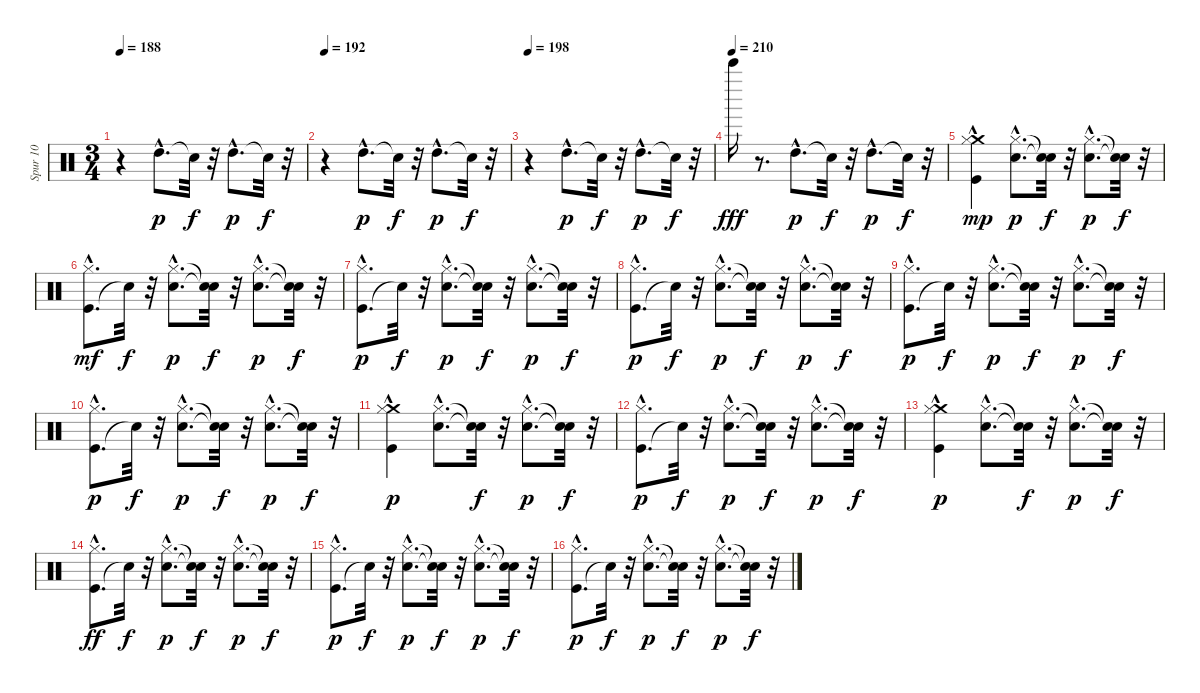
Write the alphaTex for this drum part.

\track ("Spur 10" "Spur 10") {instrument percussion}
\staff {score}
\articulation defaults
\ts (3 4)
\tempo 188
\clef neutral
\ks c
r.4{dy f} "High Tom (hit)"{hac}.8{d dy p} "Snare (hit)"{t}.32{dy f} r.32 "High Tom (hit)"{hac}.8{d dy p} "Snare (hit)"{t}.32{dy f} r.32 |
\tempo 192
r.4 "High Tom (hit)"{hac}.8{d dy p} "Snare (hit)"{t}.32{dy f} r.32 "High Tom (hit)"{hac}.8{d dy p} "Snare (hit)"{t}.32{dy f} r.32 |
\tempo 198
r.4 "High Tom (hit)"{hac}.8{d dy p} "Snare (hit)"{t}.32{dy f} r.32 "High Tom (hit)"{hac}.8{d dy p} "Snare (hit)"{t}.32{dy f} r.32 |
\tempo (210)
"Bell Tree (hit)".16{dy fff} r.8{d} "High Tom (hit)"{hac}.8{d dy p} "Snare (hit)"{t}.32{dy f} r.32 "High Tom (hit)"{hac}.8{d dy p} "Snare (hit)"{t}.32{dy f} r.32 |
("Crash medium (hit)" "Kick (hit)"{hac} "Hi-Hat (closed)").4{dy mp} ("Snare (hit) 2"{hac} "Hi-Hat (closed)"{hac}).8{d dy p} ("Snare (hit)"{t} "Snare (hit)"{t}).32{dy f} r.32 ("Snare (hit) 2"{hac} "Hi-Hat (closed)"{hac}).8{d dy p} ("Snare (hit)"{t} "Snare (hit)"{t}).32{dy f} r.32 |
("Kick (hit)"{hac} "Hi-Hat (closed)").8{d dy mf} "Snare (hit)"{t}.32{dy f} r.32 ("Snare (hit) 2"{hac} "Hi-Hat (closed)"{hac}).8{d dy p} ("Snare (hit)"{t} "Snare (hit)"{t}).32{dy f} r.32 ("Snare (hit) 2"{hac} "Hi-Hat (closed)"{hac}).8{d dy p} ("Snare (hit)"{t} "Snare (hit)"{t}).32{dy f} r.32 |
("Kick (hit)"{hac} "Hi-Hat (closed)").8{d dy p} "Snare (hit)"{t}.32{dy f} r.32 ("Snare (hit) 2"{hac} "Hi-Hat (closed)"{hac}).8{d dy p} ("Snare (hit)"{t} "Snare (hit)"{t}).32{dy f} r.32 ("Snare (hit) 2"{hac} "Hi-Hat (closed)"{hac}).8{d dy p} ("Snare (hit)"{t} "Snare (hit)"{t}).32{dy f} r.32 |
("Kick (hit)"{hac} "Hi-Hat (closed)").8{d dy p} "Snare (hit)"{t}.32{dy f} r.32 ("Snare (hit) 2"{hac} "Hi-Hat (closed)"{hac}).8{d dy p} ("Snare (hit)"{t} "Snare (hit)"{t}).32{dy f} r.32 ("Snare (hit) 2"{hac} "Hi-Hat (closed)"{hac}).8{d dy p} ("Snare (hit)"{t} "Snare (hit)"{t}).32{dy f} r.32 |
("Kick (hit)"{hac} "Hi-Hat (closed)").8{d dy p} "Snare (hit)"{t}.32{dy f} r.32 ("Snare (hit) 2"{hac} "Hi-Hat (closed)"{hac}).8{d dy p} ("Snare (hit)"{t} "Snare (hit)"{t}).32{dy f} r.32 ("Snare (hit) 2"{hac} "Hi-Hat (closed)"{hac}).8{d dy p} ("Snare (hit)"{t} "Snare (hit)"{t}).32{dy f} r.32 |
("Kick (hit)"{hac} "Hi-Hat (closed)").8{d dy p} "Snare (hit)"{t}.32{dy f} r.32 ("Snare (hit) 2"{hac} "Hi-Hat (closed)"{hac}).8{d dy p} ("Snare (hit)"{t} "Snare (hit)"{t}).32{dy f} r.32 ("Snare (hit) 2"{hac} "Hi-Hat (closed)"{hac}).8{d dy p} ("Snare (hit)"{t} "Snare (hit)"{t}).32{dy f} r.32 |
("Crash medium (hit)" "Kick (hit)"{hac} "Hi-Hat (closed)").4{dy p} ("Snare (hit) 2"{hac} "Hi-Hat (closed)"{hac}).8{d} ("Snare (hit)"{t} "Snare (hit)"{t}).32{dy f} r.32 ("Snare (hit) 2"{hac} "Hi-Hat (closed)"{hac}).8{d dy p} ("Snare (hit)"{t} "Snare (hit)"{t}).32{dy f} r.32 |
("Kick (hit)"{hac} "Hi-Hat (closed)").8{d dy p} "Snare (hit)"{t}.32{dy f} r.32 ("Snare (hit) 2"{hac} "Hi-Hat (closed)"{hac}).8{d dy p} ("Snare (hit)"{t} "Snare (hit)"{t}).32{dy f} r.32 ("Snare (hit) 2"{hac} "Hi-Hat (closed)"{hac}).8{d dy p} ("Snare (hit)"{t} "Snare (hit)"{t}).32{dy f} r.32 |
("Crash medium (hit)" "Kick (hit)"{hac} "Hi-Hat (closed)").4{dy p} ("Snare (hit) 2"{hac} "Hi-Hat (closed)"{hac}).8{d} ("Snare (hit)"{t} "Snare (hit)"{t}).32{dy f} r.32 ("Snare (hit) 2"{hac} "Hi-Hat (closed)"{hac}).8{d dy p} ("Snare (hit)"{t} "Snare (hit)"{t}).32{dy f} r.32 |
("Kick (hit)"{hac} "Hi-Hat (closed)").8{d dy ff} "Snare (hit)"{t}.32{dy f} r.32 ("Snare (hit) 2"{hac} "Hi-Hat (closed)"{hac}).8{d dy p} ("Snare (hit)"{t} "Snare (hit)"{t}).32{dy f} r.32 ("Snare (hit) 2"{hac} "Hi-Hat (closed)"{hac}).8{d dy p} ("Snare (hit)"{t} "Snare (hit)"{t}).32{dy f} r.32 |
("Kick (hit)"{hac} "Hi-Hat (closed)").8{d dy p} "Snare (hit)"{t}.32{dy f} r.32 ("Snare (hit) 2"{hac} "Hi-Hat (closed)"{hac}).8{d dy p} ("Snare (hit)"{t} "Snare (hit)"{t}).32{dy f} r.32 ("Snare (hit) 2"{hac} "Hi-Hat (closed)"{hac}).8{d dy p} ("Snare (hit)"{t} "Snare (hit)"{t}).32{dy f} r.32 |
("Kick (hit)"{hac} "Hi-Hat (closed)").8{d dy p} "Snare (hit)"{t}.32{dy f} r.32 ("Snare (hit) 2"{hac} "Hi-Hat (closed)"{hac}).8{d dy p} ("Snare (hit)"{t} "Snare (hit)"{t}).32{dy f} r.32 ("Snare (hit) 2"{hac} "Hi-Hat (closed)"{hac}).8{d dy p} ("Snare (hit)"{t} "Snare (hit)"{t}).32{dy f} r.32
